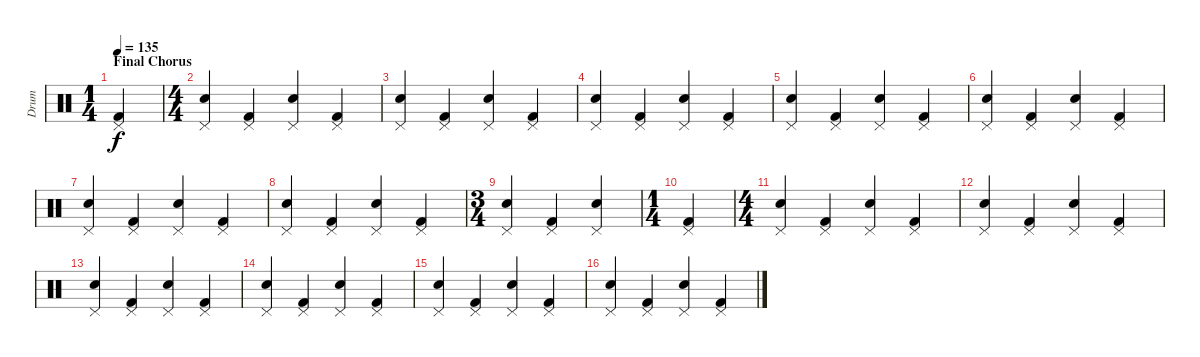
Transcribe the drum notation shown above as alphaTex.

\track ("Drum" "Drum") {instrument percussion}
\staff {score}
\articulation defaults
\ts (1 4)
\section ("" "Final Chorus")
\tempo 135
\clef neutral
\ks c
("Kick (hit) 2" "Pedal Hi-Hat (hit)").4{dy f} |
\ts (4 4)
("Electric Snare (hit)" "Pedal Hi-Hat (hit)").4 ("Kick (hit) 2" "Pedal Hi-Hat (hit)").4 ("Electric Snare (hit)" "Pedal Hi-Hat (hit)").4 ("Kick (hit) 2" "Pedal Hi-Hat (hit)").4 |
("Electric Snare (hit)" "Pedal Hi-Hat (hit)").4 ("Kick (hit) 2" "Pedal Hi-Hat (hit)").4 ("Electric Snare (hit)" "Pedal Hi-Hat (hit)").4 ("Kick (hit) 2" "Pedal Hi-Hat (hit)").4 |
("Electric Snare (hit)" "Pedal Hi-Hat (hit)").4 ("Kick (hit) 2" "Pedal Hi-Hat (hit)").4 ("Electric Snare (hit)" "Pedal Hi-Hat (hit)").4 ("Kick (hit) 2" "Pedal Hi-Hat (hit)").4 |
("Electric Snare (hit)" "Pedal Hi-Hat (hit)").4 ("Kick (hit) 2" "Pedal Hi-Hat (hit)").4 ("Electric Snare (hit)" "Pedal Hi-Hat (hit)").4 ("Kick (hit) 2" "Pedal Hi-Hat (hit)").4 |
("Electric Snare (hit)" "Pedal Hi-Hat (hit)").4 ("Kick (hit) 2" "Pedal Hi-Hat (hit)").4 ("Electric Snare (hit)" "Pedal Hi-Hat (hit)").4 ("Kick (hit) 2" "Pedal Hi-Hat (hit)").4 |
("Electric Snare (hit)" "Pedal Hi-Hat (hit)").4 ("Kick (hit) 2" "Pedal Hi-Hat (hit)").4 ("Electric Snare (hit)" "Pedal Hi-Hat (hit)").4 ("Kick (hit) 2" "Pedal Hi-Hat (hit)").4 |
("Electric Snare (hit)" "Pedal Hi-Hat (hit)").4 ("Kick (hit) 2" "Pedal Hi-Hat (hit)").4 ("Electric Snare (hit)" "Pedal Hi-Hat (hit)").4 ("Kick (hit) 2" "Pedal Hi-Hat (hit)").4 |
\ts (3 4)
("Electric Snare (hit)" "Pedal Hi-Hat (hit)").4 ("Kick (hit) 2" "Pedal Hi-Hat (hit)").4 ("Electric Snare (hit)" "Pedal Hi-Hat (hit)").4 |
\ts (1 4)
("Kick (hit) 2" "Pedal Hi-Hat (hit)").4 |
\ts (4 4)
("Electric Snare (hit)" "Pedal Hi-Hat (hit)").4 ("Kick (hit) 2" "Pedal Hi-Hat (hit)").4 ("Electric Snare (hit)" "Pedal Hi-Hat (hit)").4 ("Kick (hit) 2" "Pedal Hi-Hat (hit)").4 |
("Electric Snare (hit)" "Pedal Hi-Hat (hit)").4 ("Kick (hit) 2" "Pedal Hi-Hat (hit)").4 ("Electric Snare (hit)" "Pedal Hi-Hat (hit)").4 ("Kick (hit) 2" "Pedal Hi-Hat (hit)").4 |
("Electric Snare (hit)" "Pedal Hi-Hat (hit)").4 ("Kick (hit) 2" "Pedal Hi-Hat (hit)").4 ("Electric Snare (hit)" "Pedal Hi-Hat (hit)").4 ("Kick (hit) 2" "Pedal Hi-Hat (hit)").4 |
("Electric Snare (hit)" "Pedal Hi-Hat (hit)").4 ("Kick (hit) 2" "Pedal Hi-Hat (hit)").4 ("Electric Snare (hit)" "Pedal Hi-Hat (hit)").4 ("Kick (hit) 2" "Pedal Hi-Hat (hit)").4 |
("Electric Snare (hit)" "Pedal Hi-Hat (hit)").4 ("Kick (hit) 2" "Pedal Hi-Hat (hit)").4 ("Electric Snare (hit)" "Pedal Hi-Hat (hit)").4 ("Kick (hit) 2" "Pedal Hi-Hat (hit)").4 |
("Electric Snare (hit)" "Pedal Hi-Hat (hit)").4 ("Kick (hit) 2" "Pedal Hi-Hat (hit)").4 ("Electric Snare (hit)" "Pedal Hi-Hat (hit)").4 ("Kick (hit) 2" "Pedal Hi-Hat (hit)").4
